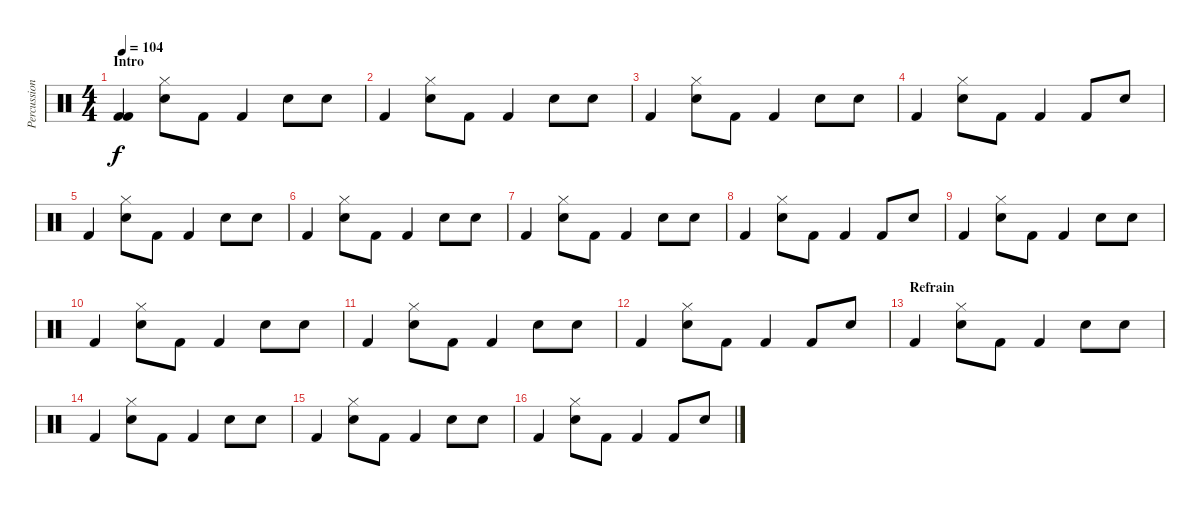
\track ("Percussions" "Percussion") {instrument percussion}
\staff {score}
\articulation defaults
\ts (4 4)
\section ("" "Intro")
\tempo 104
\clef neutral
\ks c
("Kick (hit) 2" "Kick (hit) 2").4{dy f} ("Hi-Hat (closed)" "Snare (hit) 2").8 "Kick (hit) 2".8 "Kick (hit) 2".4 "Snare (hit) 2".8 "Electric Snare (hit)".8 |
"Kick (hit) 2".4 ("Hi-Hat (closed)" "Snare (hit) 2").8 "Kick (hit) 2".8 "Kick (hit) 2".4 "Snare (hit) 2".8 "Electric Snare (hit)".8 |
"Kick (hit) 2".4 ("Hi-Hat (closed)" "Snare (hit) 2").8 "Kick (hit) 2".8 "Kick (hit) 2".4 "Snare (hit) 2".8 "Electric Snare (hit)".8 |
"Kick (hit) 2".4 ("Hi-Hat (closed)" "Snare (hit) 2").8 "Kick (hit) 2".8 "Kick (hit) 2".4 "Kick (hit) 2".8 "Electric Snare (hit)".8 |
"Kick (hit) 2".4 ("Hi-Hat (closed)" "Snare (hit) 2").8 "Kick (hit) 2".8 "Kick (hit) 2".4 "Snare (hit) 2".8 "Electric Snare (hit)".8 |
"Kick (hit) 2".4 ("Hi-Hat (closed)" "Snare (hit) 2").8 "Kick (hit) 2".8 "Kick (hit) 2".4 "Snare (hit) 2".8 "Electric Snare (hit)".8 |
"Kick (hit) 2".4 ("Hi-Hat (closed)" "Snare (hit) 2").8 "Kick (hit) 2".8 "Kick (hit) 2".4 "Snare (hit) 2".8 "Electric Snare (hit)".8 |
"Kick (hit) 2".4 ("Hi-Hat (closed)" "Snare (hit) 2").8 "Kick (hit) 2".8 "Kick (hit) 2".4 "Kick (hit) 2".8 "Electric Snare (hit)".8 |
"Kick (hit) 2".4 ("Hi-Hat (closed)" "Snare (hit) 2").8 "Kick (hit) 2".8 "Kick (hit) 2".4 "Snare (hit) 2".8 "Electric Snare (hit)".8 |
"Kick (hit) 2".4 ("Hi-Hat (closed)" "Snare (hit) 2").8 "Kick (hit) 2".8 "Kick (hit) 2".4 "Snare (hit) 2".8 "Electric Snare (hit)".8 |
"Kick (hit) 2".4 ("Hi-Hat (closed)" "Snare (hit) 2").8 "Kick (hit) 2".8 "Kick (hit) 2".4 "Snare (hit) 2".8 "Electric Snare (hit)".8 |
"Kick (hit) 2".4 ("Hi-Hat (closed)" "Snare (hit) 2").8 "Kick (hit) 2".8 "Kick (hit) 2".4 "Kick (hit) 2".8 "Electric Snare (hit)".8 |
\section ("" "Refrain")
"Kick (hit) 2".4 ("Hi-Hat (closed)" "Snare (hit) 2").8 "Kick (hit) 2".8 "Kick (hit) 2".4 "Snare (hit) 2".8 "Electric Snare (hit)".8 |
"Kick (hit) 2".4 ("Hi-Hat (closed)" "Snare (hit) 2").8 "Kick (hit) 2".8 "Kick (hit) 2".4 "Snare (hit) 2".8 "Electric Snare (hit)".8 |
"Kick (hit) 2".4 ("Hi-Hat (closed)" "Snare (hit) 2").8 "Kick (hit) 2".8 "Kick (hit) 2".4 "Snare (hit) 2".8 "Electric Snare (hit)".8 |
"Kick (hit) 2".4 ("Hi-Hat (closed)" "Snare (hit) 2").8 "Kick (hit) 2".8 "Kick (hit) 2".4 "Kick (hit) 2".8 "Electric Snare (hit)".8
